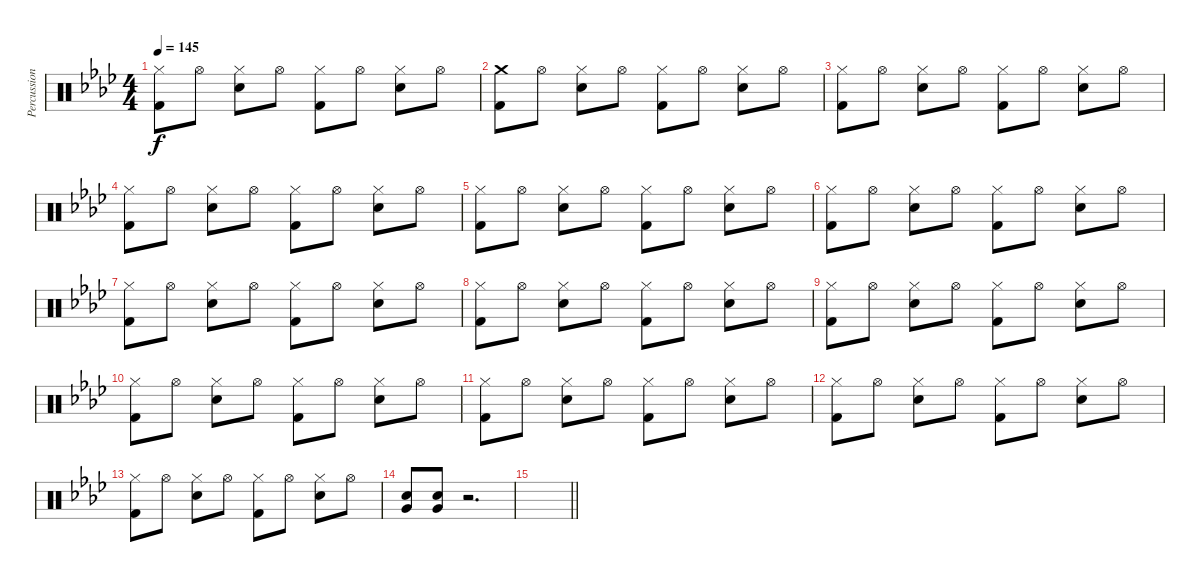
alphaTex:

\track ("Percussion" "Percussion") {instrument percussion}
\staff {score}
\articulation defaults
\ts (4 4)
\tempo 145
\clef neutral
\ks ab
("Hi-Hat (closed)" "Kick (hit) 2").8{dy f} "Hi-Hat (open)".8 ("Hi-Hat (closed)" "Snare (hit) 2").8 "Hi-Hat (open)".8 ("Hi-Hat (closed)" "Kick (hit) 2").8 "Hi-Hat (open)".8 ("Hi-Hat (closed)" "Snare (hit) 2").8 "Hi-Hat (open)".8 |
("Crash medium (hit)" "Kick (hit) 2").8 "Hi-Hat (open)".8 ("Hi-Hat (closed)" "Snare (hit) 2").8 "Hi-Hat (open)".8 ("Hi-Hat (closed)" "Kick (hit) 2").8 "Hi-Hat (open)".8 ("Hi-Hat (closed)" "Snare (hit) 2").8 "Hi-Hat (open)".8 |
("Hi-Hat (closed)" "Kick (hit) 2").8 "Hi-Hat (open)".8 ("Hi-Hat (closed)" "Snare (hit) 2").8 "Hi-Hat (open)".8 ("Hi-Hat (closed)" "Kick (hit) 2").8 "Hi-Hat (open)".8 ("Hi-Hat (closed)" "Snare (hit) 2").8 "Hi-Hat (open)".8 |
("Hi-Hat (closed)" "Kick (hit) 2").8 "Hi-Hat (open)".8 ("Hi-Hat (closed)" "Snare (hit) 2").8 "Hi-Hat (open)".8 ("Hi-Hat (closed)" "Kick (hit) 2").8 "Hi-Hat (open)".8 ("Hi-Hat (closed)" "Snare (hit) 2").8 "Hi-Hat (open)".8 |
("Hi-Hat (closed)" "Kick (hit) 2").8 "Hi-Hat (open)".8 ("Hi-Hat (closed)" "Snare (hit) 2").8 "Hi-Hat (open)".8 ("Hi-Hat (closed)" "Kick (hit) 2").8 "Hi-Hat (open)".8 ("Hi-Hat (closed)" "Snare (hit) 2").8 "Hi-Hat (open)".8 |
("Hi-Hat (closed)" "Kick (hit) 2").8 "Hi-Hat (open)".8 ("Hi-Hat (closed)" "Snare (hit) 2").8 "Hi-Hat (open)".8 ("Hi-Hat (closed)" "Kick (hit) 2").8 "Hi-Hat (open)".8 ("Hi-Hat (closed)" "Snare (hit) 2").8 "Hi-Hat (open)".8 |
("Hi-Hat (closed)" "Kick (hit) 2").8 "Hi-Hat (open)".8 ("Hi-Hat (closed)" "Snare (hit) 2").8 "Hi-Hat (open)".8 ("Hi-Hat (closed)" "Kick (hit) 2").8 "Hi-Hat (open)".8 ("Hi-Hat (closed)" "Snare (hit) 2").8 "Hi-Hat (open)".8 |
("Hi-Hat (closed)" "Kick (hit) 2").8 "Hi-Hat (open)".8 ("Hi-Hat (closed)" "Snare (hit) 2").8 "Hi-Hat (open)".8 ("Hi-Hat (closed)" "Kick (hit) 2").8 "Hi-Hat (open)".8 ("Hi-Hat (closed)" "Snare (hit) 2").8 "Hi-Hat (open)".8 |
("Hi-Hat (closed)" "Kick (hit) 2").8 "Hi-Hat (open)".8 ("Hi-Hat (closed)" "Snare (hit) 2").8 "Hi-Hat (open)".8 ("Hi-Hat (closed)" "Kick (hit) 2").8 "Hi-Hat (open)".8 ("Hi-Hat (closed)" "Snare (hit) 2").8 "Hi-Hat (open)".8 |
("Hi-Hat (closed)" "Kick (hit) 2").8 "Hi-Hat (open)".8 ("Hi-Hat (closed)" "Snare (hit) 2").8 "Hi-Hat (open)".8 ("Hi-Hat (closed)" "Kick (hit) 2").8 "Hi-Hat (open)".8 ("Hi-Hat (closed)" "Snare (hit) 2").8 "Hi-Hat (open)".8 |
("Hi-Hat (closed)" "Kick (hit) 2").8 "Hi-Hat (open)".8 ("Hi-Hat (closed)" "Snare (hit) 2").8 "Hi-Hat (open)".8 ("Hi-Hat (closed)" "Kick (hit) 2").8 "Hi-Hat (open)".8 ("Hi-Hat (closed)" "Snare (hit) 2").8 "Hi-Hat (open)".8 |
("Hi-Hat (closed)" "Kick (hit) 2").8 "Hi-Hat (open)".8 ("Hi-Hat (closed)" "Snare (hit) 2").8 "Hi-Hat (open)".8 ("Hi-Hat (closed)" "Kick (hit) 2").8 "Hi-Hat (open)".8 ("Hi-Hat (closed)" "Snare (hit) 2").8 "Hi-Hat (open)".8 |
("Hi-Hat (closed)" "Kick (hit) 2").8 "Hi-Hat (open)".8 ("Hi-Hat (closed)" "Snare (hit) 2").8 "Hi-Hat (open)".8 ("Hi-Hat (closed)" "Kick (hit) 2").8 "Hi-Hat (open)".8 ("Hi-Hat (closed)" "Snare (hit) 2").8 "Hi-Hat (open)".8 |
("Very Low Tom (hit)" "Snare (hit) 2").8 ("Snare (hit) 2" "Very Low Tom (hit)").8 r.2{d} |
\barLineRight lightlight
